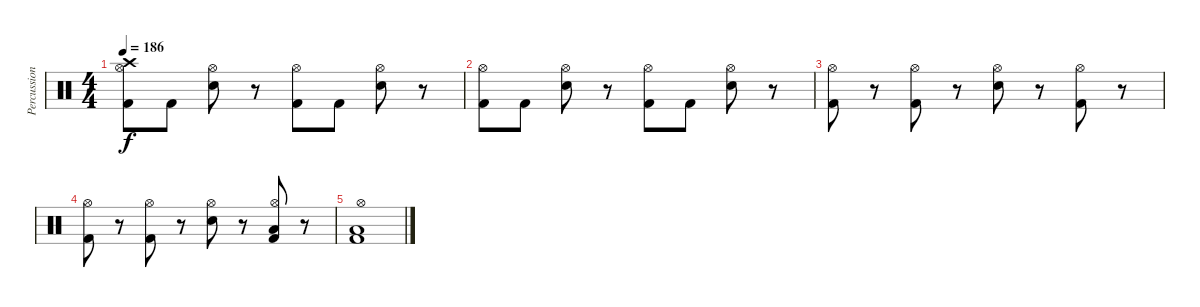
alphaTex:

\track ("Percussion" "Percussion") {instrument percussion}
\staff {score}
\articulation defaults
\ts (4 4)
\tempo 186
\clef neutral
\ks c
("Kick (hit) 2" "Hi-Hat (open)" "Crash high (hit)").8{dy f} "Kick (hit) 2".8 ("Electric Snare (hit)" "Hi-Hat (open)").8 r.8 ("Kick (hit) 2" "Hi-Hat (open)").8 "Kick (hit) 2".8 ("Electric Snare (hit)" "Hi-Hat (open)").8 r.8 |
("Kick (hit) 2" "Hi-Hat (open)").8 "Kick (hit) 2".8 ("Electric Snare (hit)" "Hi-Hat (open)").8 r.8 ("Kick (hit) 2" "Hi-Hat (open)").8 "Kick (hit) 2".8 ("Electric Snare (hit)" "Hi-Hat (open)").8 r.8 |
("Kick (hit) 2" "Hi-Hat (open)").8 r.8 ("Kick (hit) 2" "Hi-Hat (open)").8 r.8 ("Electric Snare (hit)" "Hi-Hat (open)").8 r.8 ("Kick (hit) 2" "Hi-Hat (open)").8 r.8 |
("Kick (hit) 2" "Hi-Hat (open)").8 r.8 ("Kick (hit) 2" "Hi-Hat (open)").8 r.8 ("Electric Snare (hit)" "Hi-Hat (open)").8 r.8 ("Kick (hit) 2" "Low Floor Tom (hit)" "Hi-Hat (open)").8 r.8 |
("Kick (hit) 2" "Low Floor Tom (hit)" "Hi-Hat (open)").1
